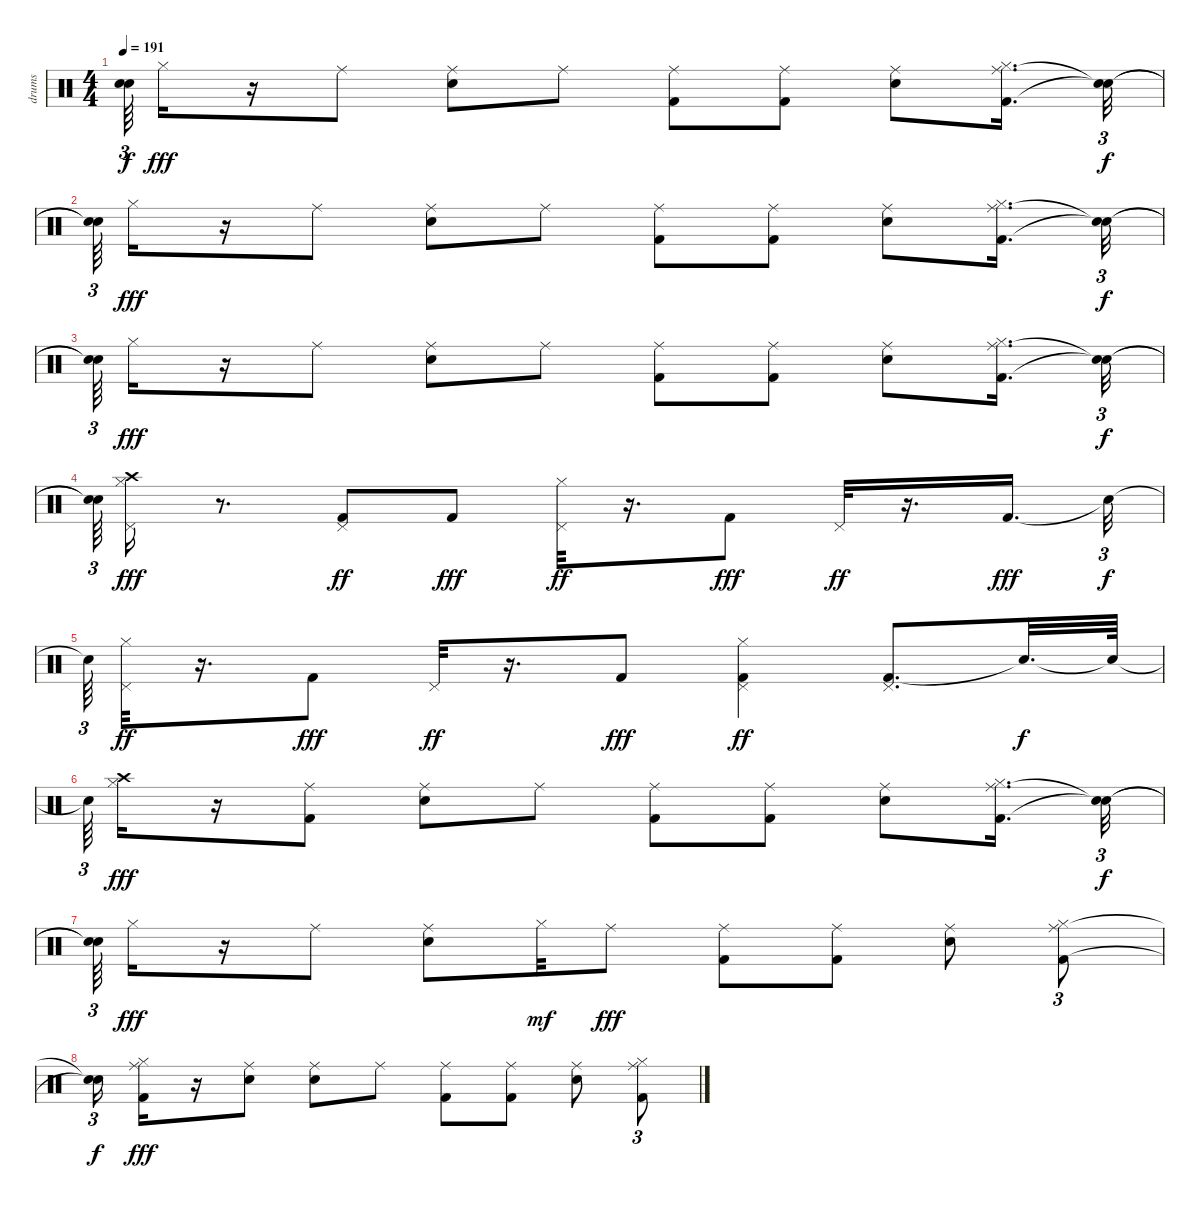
\track ("drums               " "drums     ") {instrument percussion}
\staff {score}
\articulation defaults
\ts (4 4)
\tempo 191
\clef neutral
\ks c
("Snare (hit)"{t} "Snare (hit)"{t}).64{tu (3 2) dy f} "Hi-Hat (closed)".16{dy fff} r.16 "Ride (middle)".8 ("Snare (hit) 2" "Ride (middle)").8 "Ride (middle)".8 ("Kick (hit) 2" "Ride (middle)").8 ("Kick (hit) 2" "Ride (middle)").8 ("Snare (hit) 2" "Ride (middle)").8 ("Kick (hit) 2" "Ride (middle)" "Hi-Hat (closed)").16{d} ("Snare (hit)"{t} "Snare (hit)"{t}).32{tu (3 2) dy f} |
("Snare (hit)"{t} "Snare (hit)"{t}).64{tu (3 2)} "Hi-Hat (closed)".16{dy fff} r.16 "Ride (middle)".8 ("Snare (hit) 2" "Ride (middle)").8 "Ride (middle)".8 ("Kick (hit) 2" "Ride (middle)").8 ("Kick (hit) 2" "Ride (middle)").8 ("Snare (hit) 2" "Ride (middle)").8 ("Kick (hit) 2" "Ride (middle)" "Hi-Hat (closed)").16{d} ("Snare (hit)"{t} "Snare (hit)"{t}).32{tu (3 2) dy f} |
("Snare (hit)"{t} "Snare (hit)"{t}).64{tu (3 2)} "Hi-Hat (closed)".16{dy fff} r.16 "Ride (middle)".8 ("Snare (hit) 2" "Ride (middle)").8 "Ride (middle)".8 ("Kick (hit) 2" "Ride (middle)").8 ("Kick (hit) 2" "Ride (middle)").8 ("Snare (hit) 2" "Ride (middle)").8 ("Kick (hit) 2" "Ride (middle)" "Hi-Hat (closed)").16{d} ("Snare (hit)"{t} "Snare (hit)"{t}).32{tu (3 2) dy f} |
("Snare (hit)"{t} "Snare (hit)"{t}).64{tu (3 2)} ("Hi-Hat (closed)" "Pedal Hi-Hat (hit)" "Crash high (hit)").16{dy fff} r.8{d} ("Kick (hit) 2" "Pedal Hi-Hat (hit)").8{dy ff} "Kick (hit) 2".8{dy fff} ("Hi-Hat (closed)" "Pedal Hi-Hat (hit)").32{dy ff} r.16{d} "Kick (hit) 2".8{dy fff} "Pedal Hi-Hat (hit)".32{dy ff} r.16{d} "Kick (hit) 2".16{d dy fff} "Snare (hit)"{t}.32{tu (3 2) dy f} |
"Snare (hit)"{t}.64{tu (3 2)} ("Hi-Hat (closed)" "Pedal Hi-Hat (hit)").32{dy ff} r.16{d} "Kick (hit) 2".8{dy fff} "Pedal Hi-Hat (hit)".32{dy ff} r.16{d} "Kick (hit) 2".8{dy fff} ("Kick (hit) 2" "Hi-Hat (closed)" "Pedal Hi-Hat (hit)").4{dy ff} ("Kick (hit) 2" "Pedal Hi-Hat (hit)").8{d} "Snare (hit)"{t}.32{d dy f} "Snare (hit)"{t}.64 |
"Snare (hit)"{t}.64{tu (3 2)} ("Hi-Hat (closed)" "Crash high (hit)").16{dy fff} r.16 ("Kick (hit) 2" "Ride (middle)").8 ("Snare (hit) 2" "Ride (middle)").8 "Ride (middle)".8 ("Kick (hit) 2" "Ride (middle)").8 ("Kick (hit) 2" "Ride (middle)").8 ("Snare (hit) 2" "Ride (middle)").8 ("Kick (hit) 2" "Ride (middle)" "Hi-Hat (closed)").16{d} ("Snare (hit)"{t} "Snare (hit)"{t}).32{tu (3 2) dy f} |
("Snare (hit)"{t} "Snare (hit)"{t}).64{tu (3 2)} "Hi-Hat (closed)".16{dy fff} r.16 "Ride (middle)".8 ("Snare (hit) 2" "Ride (middle)").8 "Hi-Hat (closed)".32{dy mf} "Ride (middle)".8{dy fff} ("Kick (hit) 2" "Ride (middle)").8 ("Kick (hit) 2" "Ride (middle)").8 ("Snare (hit) 2" "Ride (middle)").8 ("Kick (hit) 2" "Ride (middle)" "Hi-Hat (closed)").8{tu (3 2)} |
("Snare (hit)"{t} "Snare (hit)"{t}).16{tu (3 2) dy f} ("Kick (hit) 2" "Ride (middle)" "Hi-Hat (closed)").16{dy fff} r.16 ("Snare (hit) 2" "Ride (middle)").8 ("Snare (hit) 2" "Ride (middle)").8 "Ride (middle)".8 ("Kick (hit) 2" "Ride (middle)").8 ("Kick (hit) 2" "Ride (middle)").8 ("Snare (hit) 2" "Ride (middle)").8 ("Kick (hit) 2" "Ride (middle)" "Hi-Hat (closed)").8{tu (3 2)}
